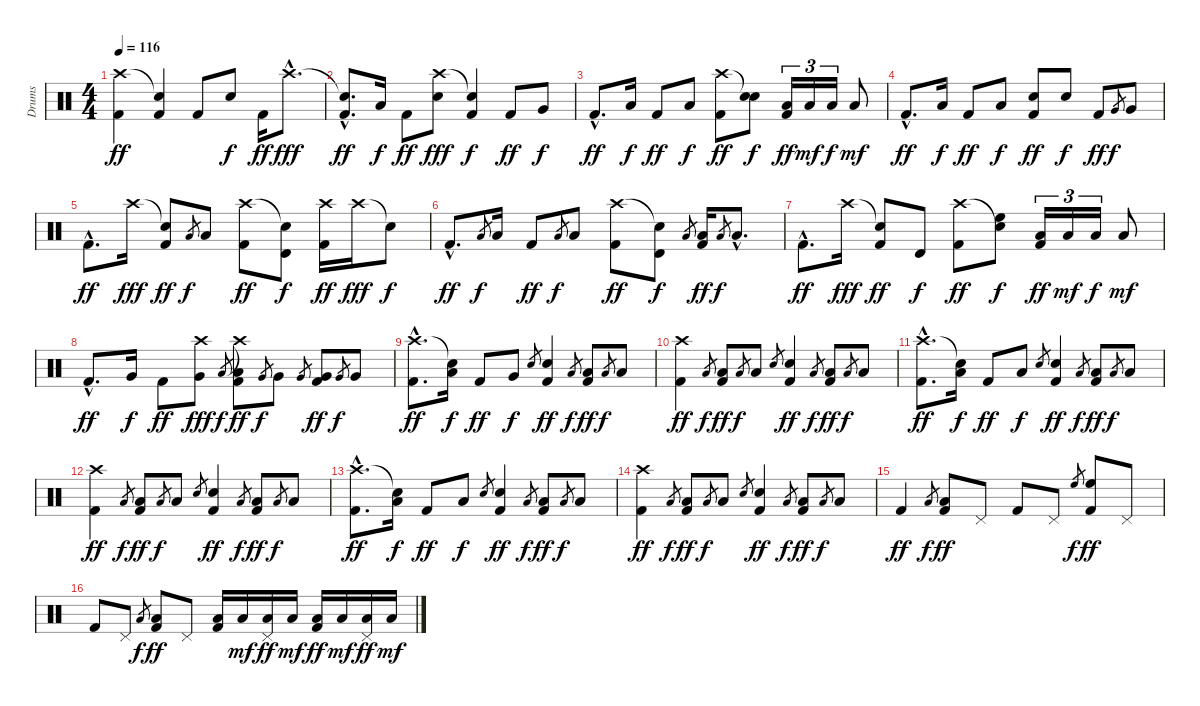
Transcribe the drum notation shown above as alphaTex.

\track ("Drums" "Drums") {instrument percussion}
\staff {score}
\articulation defaults
\ts (4 4)
\tempo 116
\clef neutral
\ks c
("Crash high (hit)" "Kick (hit) 2").4{dy ff} ("Snare (hit)"{t} "Kick (hit) 2").4 "Kick (hit) 2".8 "Snare (hit) 2".8{dy f} "Kick (hit) 2".16{dy ff} "Crash high (hit)"{hac}.8{d dy fff} |
("Snare (hit)"{hac t} "Kick (hit) 2"{hac}).8{d dy ff} "Low Floor Tom (hit)".16{dy f} "Kick (hit) 2".8{dy ff} ("Crash high (hit)" "Snare (hit) 2").8{dy fff} ("Snare (hit)"{t} "Kick (hit) 2").4{dy f} "Kick (hit) 2".8{dy ff} "Very Low Tom (hit)".8{dy f} |
"Kick (hit) 2"{hac}.8{d dy ff} "Low Tom (hit)".16{dy f} "Kick (hit) 2".8{dy ff} "Low Floor Tom (hit)".8{dy f} ("Crash high (hit)" "Kick (hit) 2").8{dy ff} ("Snare (hit)"{t} "Snare (hit) 2").8{dy f} ("Low Tom (hit)" "Kick (hit) 2").16{tu (3 2) dy ff} "Low Tom (hit)".16{tu (3 2) dy mf} "Low Tom (hit)".16{tu (3 2) dy f} "Low Tom (hit)".8{dy mf} |
"Kick (hit) 2"{hac}.8{d dy ff} "Low Floor Tom (hit)".16{dy f} "Kick (hit) 2".8{dy ff} "Low Floor Tom (hit)".8{dy f} ("Snare (hit) 2" "Kick (hit) 2").8{dy ff} "Snare (hit) 2".8{dy f} "Kick (hit) 2".8{dy ff} "Very Low Tom (hit)".8{gr dy f} "Very Low Tom (hit)".8 |
"Kick (hit) 2"{hac}.8{d dy ff} "Crash high (hit)".16{dy fff} ("Snare (hit)"{t} "Kick (hit) 2").8{dy ff} "Low Floor Tom (hit)".8{gr dy f} "Low Floor Tom (hit)".8 ("Crash high (hit)" "Kick (hit) 2").8{dy ff} ("Snare (hit)"{t} "Timbale high (hit)").8{dy f} ("Crash high (hit)" "Kick (hit) 2").16{dy ff} "Crash high (hit)".16{dy fff} "Snare (hit)"{t}.8{dy f} |
"Kick (hit) 2"{hac}.8{d dy ff} "Low Floor Tom (hit)".8{gr dy f} "Low Floor Tom (hit)".16 "Kick (hit) 2".8{dy ff} "Low Floor Tom (hit)".8{gr dy f} "Low Floor Tom (hit)".8 ("Crash high (hit)" "Kick (hit) 2").8{dy ff} ("Snare (hit)"{t} "Timbale high (hit)").8{dy f} "Low Floor Tom (hit)".8{gr} ("Low Floor Tom (hit)" "Kick (hit) 2").16{dy ff} "Low Floor Tom (hit)".8{gr dy f} "Low Floor Tom (hit)"{hac}.8{d} |
"Kick (hit) 2"{hac}.8{d dy ff} "Crash high (hit)".16{dy fff} ("Snare (hit)"{t} "Kick (hit) 2").8{dy ff} "Timbale high (hit)".8{dy f} ("Crash high (hit)" "Kick (hit) 2").8{dy ff} ("Snare (hit)"{t} "High Floor Tom (hit)").8{dy f} ("Low Tom (hit)" "Kick (hit) 2").16{tu (3 2) dy ff} "Low Tom (hit)".16{tu (3 2) dy mf} "Low Tom (hit)".16{tu (3 2) dy f} "Low Tom (hit)".8{dy mf} |
"Kick (hit) 2"{hac}.8{d dy ff} "Very Low Tom (hit)".16{dy f} "Kick (hit) 2".8{dy ff} ("Crash high (hit)" "Very Low Tom (hit)").8{dy fff} "Low Floor Tom (hit)".8{gr dy f} ("Crash high (hit)"{t} "Low Floor Tom (hit)" "Kick (hit) 2").8{dy ff} "Very Low Tom (hit)".8{gr dy f} "Very Low Tom (hit)".8 "Very Low Tom (hit)".8{gr} ("Very Low Tom (hit)" "Kick (hit) 2").8{dy ff} "Very Low Tom (hit)".8{gr dy f} "Very Low Tom (hit)".8 |
("Crash high (hit)"{hac} "Kick (hit) 2"{hac}).8{d dy ff} ("Snare (hit)"{t} "Low Floor Tom (hit)").16{dy f} "Kick (hit) 2".8{dy ff} "Very Low Tom (hit)".8{dy f} "Snare (hit) 2".8{gr} ("Snare (hit) 2" "Kick (hit) 2").4{dy ff} "Low Tom (hit)".8{gr dy f} ("Low Tom (hit)" "Kick (hit) 2").8{dy ff} "Low Tom (hit)".8{gr dy f} "Low Tom (hit)".8 |
("Crash high (hit)" "Kick (hit) 2").4{dy ff} "Low Floor Tom (hit)".8{gr dy f} ("Low Floor Tom (hit)" "Kick (hit) 2").8{dy ff} "Low Floor Tom (hit)".8{gr dy f} "Low Floor Tom (hit)".8 "Snare (hit) 2".8{gr} ("Snare (hit) 2" "Kick (hit) 2").4{dy ff} "Low Tom (hit)".8{gr dy f} ("Low Tom (hit)" "Kick (hit) 2").8{dy ff} "Low Tom (hit)".8{gr dy f} "Low Tom (hit)".8 |
("Crash high (hit)"{hac} "Kick (hit) 2"{hac}).8{d dy ff} ("Snare (hit)"{t} "Low Floor Tom (hit)").16{dy f} "Kick (hit) 2".8{dy ff} "Low Floor Tom (hit)".8{dy f} "Snare (hit) 2".8{gr} ("Snare (hit) 2" "Kick (hit) 2").4{dy ff} "Low Tom (hit)".8{gr dy f} ("Low Tom (hit)" "Kick (hit) 2").8{dy ff} "Low Tom (hit)".8{gr dy f} "Low Tom (hit)".8 |
("Crash high (hit)" "Kick (hit) 2").4{dy ff} "Low Floor Tom (hit)".8{gr dy f} ("Low Floor Tom (hit)" "Kick (hit) 2").8{dy ff} "Low Floor Tom (hit)".8{gr dy f} "Low Floor Tom (hit)".8 "Snare (hit) 2".8{gr} ("Snare (hit) 2" "Kick (hit) 2").4{dy ff} "Low Tom (hit)".8{gr dy f} ("Low Tom (hit)" "Kick (hit) 2").8{dy ff} "Low Tom (hit)".8{gr dy f} "Low Tom (hit)".8 |
("Crash high (hit)"{hac} "Kick (hit) 2"{hac}).8{d dy ff} ("Snare (hit)"{t} "Low Floor Tom (hit)").16{dy f} "Kick (hit) 2".8{dy ff} "Low Floor Tom (hit)".8{dy f} "Snare (hit) 2".8{gr} ("Snare (hit) 2" "Kick (hit) 2").4{dy ff} "Low Tom (hit)".8{gr dy f} ("Low Tom (hit)" "Kick (hit) 2").8{dy ff} "Low Tom (hit)".8{gr dy f} "Low Tom (hit)".8 |
("Crash high (hit)" "Kick (hit) 2").4{dy ff} "Low Floor Tom (hit)".8{gr dy f} ("Low Floor Tom (hit)" "Kick (hit) 2").8{dy ff} "Low Floor Tom (hit)".8{gr dy f} "Low Floor Tom (hit)".8 "Snare (hit) 2".8{gr} ("Snare (hit) 2" "Kick (hit) 2").4{dy ff} "Low Tom (hit)".8{gr dy f} ("Low Tom (hit)" "Kick (hit) 2").8{dy ff} "Low Tom (hit)".8{gr dy f} "Low Tom (hit)".8 |
"Kick (hit) 2".4{dy ff} "Low Tom (hit)".8{gr dy f} ("Low Tom (hit)" "Kick (hit) 2").8{dy ff} "Pedal Hi-Hat (hit)".8 "Kick (hit) 2".8 "Pedal Hi-Hat (hit)".8 "High Floor Tom (hit)".8{gr dy f} ("High Floor Tom (hit)" "Kick (hit) 2").8{dy ff} "Pedal Hi-Hat (hit)".8 |
"Kick (hit) 2".8 "Pedal Hi-Hat (hit)".8 "Low Tom (hit)".8{gr dy f} ("Low Tom (hit)" "Kick (hit) 2").8{dy ff} "Pedal Hi-Hat (hit)".8 ("Low Floor Tom (hit)" "Kick (hit) 2").16 "Low Floor Tom (hit)".16{dy mf} ("Low Floor Tom (hit)" "Pedal Hi-Hat (hit)").16{dy ff} "Low Floor Tom (hit)".16{dy mf} ("Low Floor Tom (hit)" "Kick (hit) 2").16{dy ff} "Low Floor Tom (hit)".16{dy mf} ("Low Floor Tom (hit)" "Pedal Hi-Hat (hit)").16{dy ff} "Low Floor Tom (hit)".16{dy mf}
